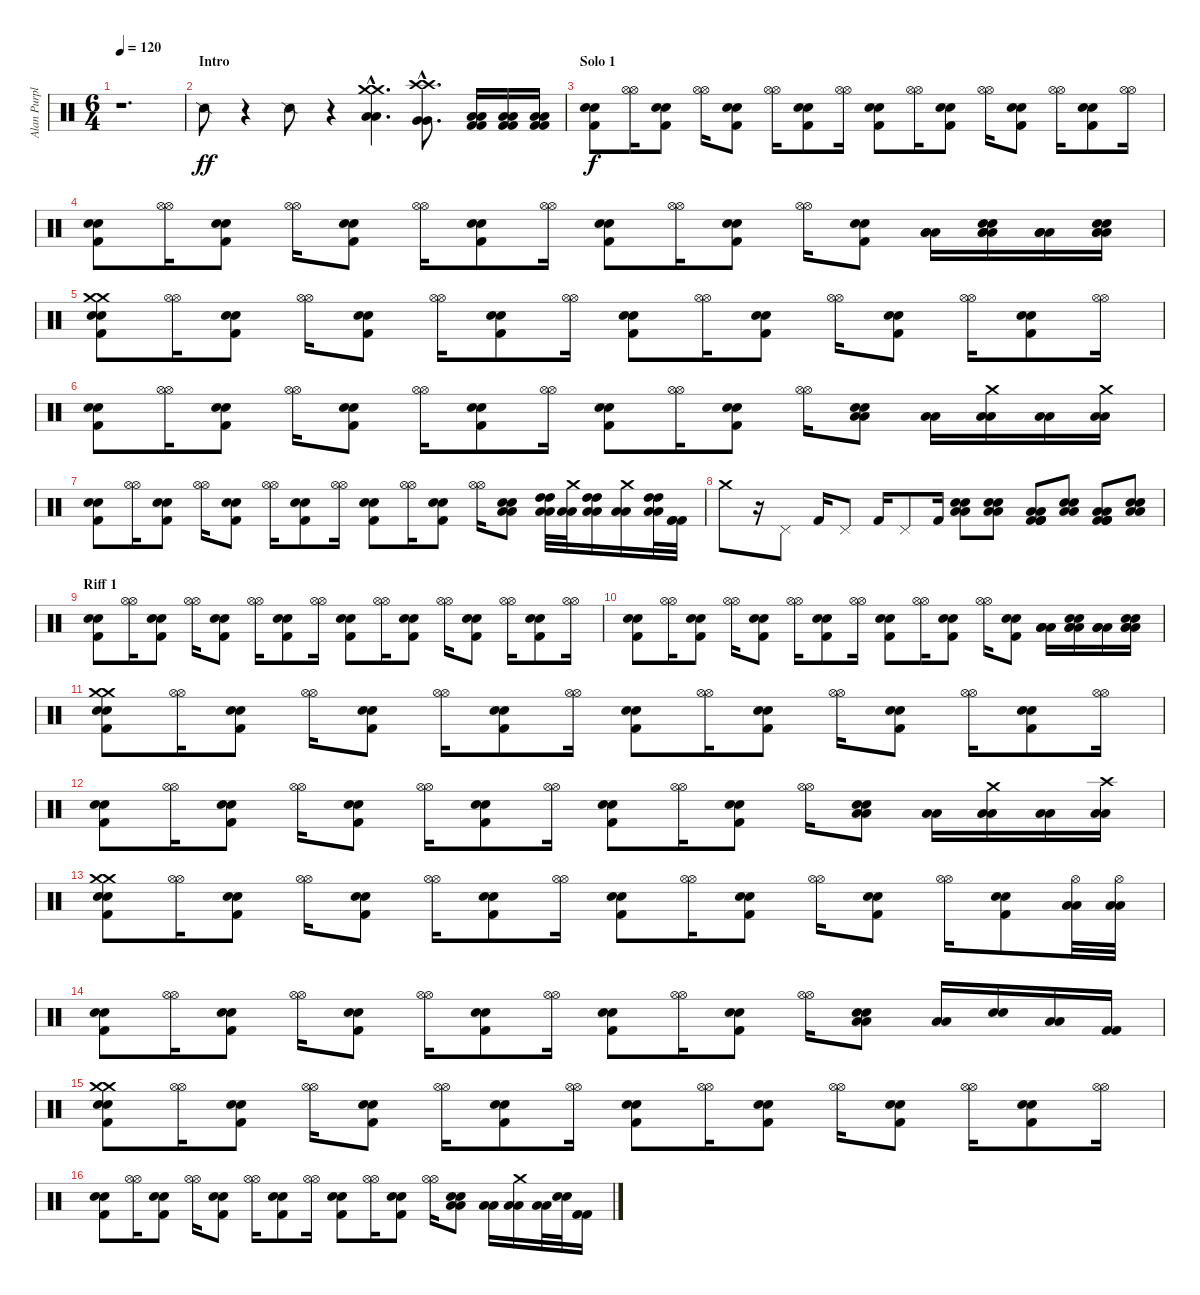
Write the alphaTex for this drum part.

\track ("Alan Purple" "Alan Purpl") {instrument percussion}
\staff {score}
\articulation defaults
\ts (6 4)
\tempo 120
\clef neutral
\ks c
r.1{d dy ff} |
\section ("" "Intro")
"Snare (side stick) 2".8 r.4 "Snare (side stick) 2".8 r.4 ("Crash medium (hit)"{hac} "Crash medium (hit)"{hac} "Low Tom (hit)"{hac} "Low Tom (hit)"{hac}).4{d} ("Crash high (hit)"{hac} "Crash high (hit)"{hac} "Very Low Tom (hit)"{hac} "Very Low Tom (hit)"{hac}).8{d} ("Kick (hit) 2" "Kick (hit) 2" "Low Tom (hit)" "Low Tom (hit)").16 ("Kick (hit) 2" "Kick (hit) 2" "Low Tom (hit)" "Low Tom (hit)").16 ("Kick (hit) 2" "Kick (hit) 2" "Low Tom (hit)" "Low Tom (hit)").16 |
\section ("" "Solo 1")
("Electric Snare (hit)" "Kick (hit) 2" "Electric Snare (hit)").8{dy f} ("Hi-Hat (open)" "Hi-Hat (open)").16 ("Electric Snare (hit)" "Kick (hit) 2" "Electric Snare (hit)").8 ("Hi-Hat (open)" "Hi-Hat (open)").16 ("Electric Snare (hit)" "Kick (hit) 2" "Electric Snare (hit)").8 ("Hi-Hat (open)" "Hi-Hat (open)").16 ("Electric Snare (hit)" "Kick (hit) 2" "Electric Snare (hit)").8 ("Hi-Hat (open)" "Hi-Hat (open)").16 ("Electric Snare (hit)" "Kick (hit) 2" "Electric Snare (hit)").8 ("Hi-Hat (open)" "Hi-Hat (open)").16 ("Electric Snare (hit)" "Kick (hit) 2" "Electric Snare (hit)").8 ("Hi-Hat (open)" "Hi-Hat (open)").16 ("Electric Snare (hit)" "Kick (hit) 2" "Electric Snare (hit)").8 ("Hi-Hat (open)" "Hi-Hat (open)").16 ("Electric Snare (hit)" "Kick (hit) 2" "Electric Snare (hit)").8 ("Hi-Hat (open)" "Hi-Hat (open)").16 |
("Electric Snare (hit)" "Kick (hit) 2" "Electric Snare (hit)").8 ("Hi-Hat (open)" "Hi-Hat (open)").16 ("Electric Snare (hit)" "Kick (hit) 2" "Electric Snare (hit)").8 ("Hi-Hat (open)" "Hi-Hat (open)").16 ("Electric Snare (hit)" "Kick (hit) 2" "Electric Snare (hit)").8 ("Hi-Hat (open)" "Hi-Hat (open)").16 ("Electric Snare (hit)" "Kick (hit) 2" "Electric Snare (hit)").8 ("Hi-Hat (open)" "Hi-Hat (open)").16 ("Electric Snare (hit)" "Kick (hit) 2" "Electric Snare (hit)").8 ("Hi-Hat (open)" "Hi-Hat (open)").16 ("Electric Snare (hit)" "Kick (hit) 2" "Electric Snare (hit)").8 ("Hi-Hat (open)" "Hi-Hat (open)").16 ("Electric Snare (hit)" "Kick (hit) 2" "Electric Snare (hit)").8 ("Low Tom (hit)" "Low Tom (hit)" "Low Tom (hit)").16 ("Low Tom (hit)" "Low Tom (hit)" "Low Tom (hit)" "Electric Snare (hit)" "Electric Snare (hit)").16 ("Low Tom (hit)" "Low Tom (hit)" "Low Tom (hit)").16 ("Low Tom (hit)" "Low Tom (hit)" "Low Tom (hit)" "Electric Snare (hit)" "Electric Snare (hit)").16 |
("Electric Snare (hit)" "Crash medium (hit)" "Crash medium (hit)" "Kick (hit) 2" "Electric Snare (hit)").8 ("Hi-Hat (open)" "Hi-Hat (open)").16 ("Electric Snare (hit)" "Kick (hit) 2" "Electric Snare (hit)").8 ("Hi-Hat (open)" "Hi-Hat (open)").16 ("Electric Snare (hit)" "Kick (hit) 2" "Electric Snare (hit)").8 ("Hi-Hat (open)" "Hi-Hat (open)").16 ("Electric Snare (hit)" "Kick (hit) 2" "Electric Snare (hit)").8 ("Hi-Hat (open)" "Hi-Hat (open)").16 ("Electric Snare (hit)" "Kick (hit) 2" "Electric Snare (hit)").8 ("Hi-Hat (open)" "Hi-Hat (open)").16 ("Electric Snare (hit)" "Kick (hit) 2" "Electric Snare (hit)").8 ("Hi-Hat (open)" "Hi-Hat (open)").16 ("Electric Snare (hit)" "Kick (hit) 2" "Electric Snare (hit)").8 ("Hi-Hat (open)" "Hi-Hat (open)").16 ("Electric Snare (hit)" "Kick (hit) 2" "Electric Snare (hit)").8 ("Hi-Hat (open)" "Hi-Hat (open)").16 |
("Electric Snare (hit)" "Kick (hit) 2" "Electric Snare (hit)").8 ("Hi-Hat (open)" "Hi-Hat (open)").16 ("Electric Snare (hit)" "Kick (hit) 2" "Electric Snare (hit)").8 ("Hi-Hat (open)" "Hi-Hat (open)").16 ("Electric Snare (hit)" "Kick (hit) 2" "Electric Snare (hit)").8 ("Hi-Hat (open)" "Hi-Hat (open)").16 ("Electric Snare (hit)" "Kick (hit) 2" "Electric Snare (hit)").8 ("Hi-Hat (open)" "Hi-Hat (open)").16 ("Electric Snare (hit)" "Kick (hit) 2" "Electric Snare (hit)").8 ("Hi-Hat (open)" "Hi-Hat (open)").16 ("Electric Snare (hit)" "Kick (hit) 2" "Electric Snare (hit)").8 ("Hi-Hat (open)" "Hi-Hat (open)").16 ("Electric Snare (hit)" "Low Tom (hit)" "Low Tom (hit)" "Electric Snare (hit)").8 ("Low Tom (hit)" "Low Tom (hit)").16 ("Crash medium (hit)" "Low Tom (hit)" "Low Tom (hit)").16 ("Low Tom (hit)" "Low Tom (hit)").16 ("Crash medium (hit)" "Low Tom (hit)" "Low Tom (hit)").16 |
("Electric Snare (hit)" "Kick (hit) 2" "Electric Snare (hit)").8 ("Hi-Hat (open)" "Hi-Hat (open)").16 ("Electric Snare (hit)" "Kick (hit) 2" "Electric Snare (hit)").8 ("Hi-Hat (open)" "Hi-Hat (open)").16 ("Electric Snare (hit)" "Kick (hit) 2" "Electric Snare (hit)").8 ("Hi-Hat (open)" "Hi-Hat (open)").16 ("Electric Snare (hit)" "Kick (hit) 2" "Electric Snare (hit)").8 ("Hi-Hat (open)" "Hi-Hat (open)").16 ("Electric Snare (hit)" "Kick (hit) 2" "Electric Snare (hit)").8 ("Hi-Hat (open)" "Hi-Hat (open)").16 ("Electric Snare (hit)" "Kick (hit) 2" "Electric Snare (hit)").8 ("Hi-Hat (open)" "Hi-Hat (open)").16 ("Electric Snare (hit)" "Low Tom (hit)" "Low Tom (hit)" "Electric Snare (hit)").8 ("High Tom (hit)" "Low Tom (hit)" "Low Tom (hit)" "High Tom (hit)").32 ("Crash medium (hit)" "Low Tom (hit)" "Low Tom (hit)").32 ("High Tom (hit)" "Low Tom (hit)" "Low Tom (hit)" "High Tom (hit)").16 ("Crash medium (hit)" "Low Tom (hit)" "Low Tom (hit)").16 ("High Tom (hit)" "Low Tom (hit)" "Low Tom (hit)" "High Tom (hit)").32 ("Kick (hit) 2" "Kick (hit) 2" "Kick (hit) 2").32 |
"Crash medium (hit)".8 r.16 "Pedal Hi-Hat (hit)".8 "Kick (hit) 2".16 "Pedal Hi-Hat (hit)".8 "Kick (hit) 2".16 "Pedal Hi-Hat (hit)".8 "Kick (hit) 2".16 ("Electric Snare (hit)" "Low Tom (hit)" "Low Tom (hit)" "Electric Snare (hit)").8 ("Electric Snare (hit)" "Low Tom (hit)" "Low Tom (hit)" "Electric Snare (hit)").8 ("Kick (hit) 2" "Kick (hit) 2" "Low Tom (hit)" "Low Tom (hit)" "Kick (hit) 2" "Kick (hit) 2").8 ("Electric Snare (hit)" "Low Tom (hit)" "Low Tom (hit)" "Electric Snare (hit)").8 ("Kick (hit) 2" "Kick (hit) 2" "Low Tom (hit)" "Low Tom (hit)" "Kick (hit) 2" "Kick (hit) 2").8 ("Electric Snare (hit)" "Low Tom (hit)" "Low Tom (hit)" "Electric Snare (hit)").8 |
\section ("" "Riff 1")
("Electric Snare (hit)" "Kick (hit) 2" "Electric Snare (hit)").8 ("Hi-Hat (open)" "Hi-Hat (open)").16 ("Electric Snare (hit)" "Kick (hit) 2" "Electric Snare (hit)").8 ("Hi-Hat (open)" "Hi-Hat (open)").16 ("Electric Snare (hit)" "Kick (hit) 2" "Electric Snare (hit)").8 ("Hi-Hat (open)" "Hi-Hat (open)").16 ("Electric Snare (hit)" "Kick (hit) 2" "Electric Snare (hit)").8 ("Hi-Hat (open)" "Hi-Hat (open)").16 ("Electric Snare (hit)" "Kick (hit) 2" "Electric Snare (hit)").8 ("Hi-Hat (open)" "Hi-Hat (open)").16 ("Electric Snare (hit)" "Kick (hit) 2" "Electric Snare (hit)").8 ("Hi-Hat (open)" "Hi-Hat (open)").16 ("Electric Snare (hit)" "Kick (hit) 2" "Electric Snare (hit)").8 ("Hi-Hat (open)" "Hi-Hat (open)").16 ("Electric Snare (hit)" "Kick (hit) 2" "Electric Snare (hit)").8 ("Hi-Hat (open)" "Hi-Hat (open)").16 |
("Electric Snare (hit)" "Kick (hit) 2" "Electric Snare (hit)").8 ("Hi-Hat (open)" "Hi-Hat (open)").16 ("Electric Snare (hit)" "Kick (hit) 2" "Electric Snare (hit)").8 ("Hi-Hat (open)" "Hi-Hat (open)").16 ("Electric Snare (hit)" "Kick (hit) 2" "Electric Snare (hit)").8 ("Hi-Hat (open)" "Hi-Hat (open)").16 ("Electric Snare (hit)" "Kick (hit) 2" "Electric Snare (hit)").8 ("Hi-Hat (open)" "Hi-Hat (open)").16 ("Electric Snare (hit)" "Kick (hit) 2" "Electric Snare (hit)").8 ("Hi-Hat (open)" "Hi-Hat (open)").16 ("Electric Snare (hit)" "Kick (hit) 2" "Electric Snare (hit)").8 ("Hi-Hat (open)" "Hi-Hat (open)").16 ("Electric Snare (hit)" "Kick (hit) 2" "Electric Snare (hit)").8 ("Low Tom (hit)" "Low Tom (hit)" "Low Tom (hit)").16 ("Low Tom (hit)" "Low Tom (hit)" "Low Tom (hit)" "Electric Snare (hit)" "Electric Snare (hit)").16 ("Low Tom (hit)" "Low Tom (hit)" "Low Tom (hit)").16 ("Low Tom (hit)" "Low Tom (hit)" "Low Tom (hit)" "Electric Snare (hit)" "Electric Snare (hit)").16 |
("Electric Snare (hit)" "Crash medium (hit)" "Crash medium (hit)" "Kick (hit) 2" "Electric Snare (hit)").8 ("Hi-Hat (open)" "Hi-Hat (open)").16 ("Electric Snare (hit)" "Kick (hit) 2" "Electric Snare (hit)").8 ("Hi-Hat (open)" "Hi-Hat (open)").16 ("Electric Snare (hit)" "Kick (hit) 2" "Electric Snare (hit)").8 ("Hi-Hat (open)" "Hi-Hat (open)").16 ("Electric Snare (hit)" "Kick (hit) 2" "Electric Snare (hit)").8 ("Hi-Hat (open)" "Hi-Hat (open)").16 ("Electric Snare (hit)" "Kick (hit) 2" "Electric Snare (hit)").8 ("Hi-Hat (open)" "Hi-Hat (open)").16 ("Electric Snare (hit)" "Kick (hit) 2" "Electric Snare (hit)").8 ("Hi-Hat (open)" "Hi-Hat (open)").16 ("Electric Snare (hit)" "Kick (hit) 2" "Electric Snare (hit)").8 ("Hi-Hat (open)" "Hi-Hat (open)").16 ("Electric Snare (hit)" "Kick (hit) 2" "Electric Snare (hit)").8 ("Hi-Hat (open)" "Hi-Hat (open)").16 |
("Electric Snare (hit)" "Kick (hit) 2" "Electric Snare (hit)").8 ("Hi-Hat (open)" "Hi-Hat (open)").16 ("Electric Snare (hit)" "Kick (hit) 2" "Electric Snare (hit)").8 ("Hi-Hat (open)" "Hi-Hat (open)").16 ("Electric Snare (hit)" "Kick (hit) 2" "Electric Snare (hit)").8 ("Hi-Hat (open)" "Hi-Hat (open)").16 ("Electric Snare (hit)" "Kick (hit) 2" "Electric Snare (hit)").8 ("Hi-Hat (open)" "Hi-Hat (open)").16 ("Electric Snare (hit)" "Kick (hit) 2" "Electric Snare (hit)").8 ("Hi-Hat (open)" "Hi-Hat (open)").16 ("Electric Snare (hit)" "Kick (hit) 2" "Electric Snare (hit)").8 ("Hi-Hat (open)" "Hi-Hat (open)").16 ("Electric Snare (hit)" "Low Tom (hit)" "Low Tom (hit)" "Electric Snare (hit)").8 ("Low Tom (hit)" "Low Tom (hit)").16 ("Crash medium (hit)" "Low Tom (hit)" "Low Tom (hit)").16 ("Low Tom (hit)" "Low Tom (hit)").16 ("Crash high (hit)" "Low Tom (hit)" "Low Tom (hit)").16 |
("Electric Snare (hit)" "Crash medium (hit)" "Crash medium (hit)" "Kick (hit) 2" "Electric Snare (hit)").8 ("Hi-Hat (open)" "Hi-Hat (open)").16 ("Electric Snare (hit)" "Kick (hit) 2" "Electric Snare (hit)").8 ("Hi-Hat (open)" "Hi-Hat (open)").16 ("Electric Snare (hit)" "Kick (hit) 2" "Electric Snare (hit)").8 ("Hi-Hat (open)" "Hi-Hat (open)").16 ("Electric Snare (hit)" "Kick (hit) 2" "Electric Snare (hit)").8 ("Hi-Hat (open)" "Hi-Hat (open)").16 ("Electric Snare (hit)" "Kick (hit) 2" "Electric Snare (hit)").8 ("Hi-Hat (open)" "Hi-Hat (open)").16 ("Electric Snare (hit)" "Kick (hit) 2" "Electric Snare (hit)").8 ("Hi-Hat (open)" "Hi-Hat (open)").16 ("Electric Snare (hit)" "Kick (hit) 2" "Electric Snare (hit)").8 ("Hi-Hat (open)" "Hi-Hat (open)").16 ("Electric Snare (hit)" "Kick (hit) 2" "Electric Snare (hit)").8 ("Hi-Hat (open)" "Low Tom (hit)" "Low Tom (hit)").32 ("Hi-Hat (open)" "Low Tom (hit)" "Low Tom (hit)").32 |
("Electric Snare (hit)" "Kick (hit) 2" "Electric Snare (hit)").8 ("Hi-Hat (open)" "Hi-Hat (open)").16 ("Electric Snare (hit)" "Kick (hit) 2" "Electric Snare (hit)").8 ("Hi-Hat (open)" "Hi-Hat (open)").16 ("Electric Snare (hit)" "Kick (hit) 2" "Electric Snare (hit)").8 ("Hi-Hat (open)" "Hi-Hat (open)").16 ("Electric Snare (hit)" "Kick (hit) 2" "Electric Snare (hit)").8 ("Hi-Hat (open)" "Hi-Hat (open)").16 ("Electric Snare (hit)" "Kick (hit) 2" "Electric Snare (hit)").8 ("Hi-Hat (open)" "Hi-Hat (open)").16 ("Electric Snare (hit)" "Kick (hit) 2" "Electric Snare (hit)").8 ("Hi-Hat (open)" "Hi-Hat (open)").16 ("Electric Snare (hit)" "Low Tom (hit)" "Low Tom (hit)" "Electric Snare (hit)").8 ("Low Tom (hit)" "Low Tom (hit)").16 ("Electric Snare (hit)" "Electric Snare (hit)").16 ("Low Tom (hit)" "Low Tom (hit)").16 ("Kick (hit) 2" "Kick (hit) 2").16 |
("Electric Snare (hit)" "Crash medium (hit)" "Crash medium (hit)" "Kick (hit) 2" "Electric Snare (hit)").8 ("Hi-Hat (open)" "Hi-Hat (open)").16 ("Electric Snare (hit)" "Kick (hit) 2" "Electric Snare (hit)").8 ("Hi-Hat (open)" "Hi-Hat (open)").16 ("Electric Snare (hit)" "Kick (hit) 2" "Electric Snare (hit)").8 ("Hi-Hat (open)" "Hi-Hat (open)").16 ("Electric Snare (hit)" "Kick (hit) 2" "Electric Snare (hit)").8 ("Hi-Hat (open)" "Hi-Hat (open)").16 ("Electric Snare (hit)" "Kick (hit) 2" "Electric Snare (hit)").8 ("Hi-Hat (open)" "Hi-Hat (open)").16 ("Electric Snare (hit)" "Kick (hit) 2" "Electric Snare (hit)").8 ("Hi-Hat (open)" "Hi-Hat (open)").16 ("Electric Snare (hit)" "Kick (hit) 2" "Electric Snare (hit)").8 ("Hi-Hat (open)" "Hi-Hat (open)").16 ("Electric Snare (hit)" "Kick (hit) 2" "Electric Snare (hit)").8 ("Hi-Hat (open)" "Hi-Hat (open)").16 |
("Electric Snare (hit)" "Kick (hit) 2" "Electric Snare (hit)").8 ("Hi-Hat (open)" "Hi-Hat (open)").16 ("Electric Snare (hit)" "Kick (hit) 2" "Electric Snare (hit)").8 ("Hi-Hat (open)" "Hi-Hat (open)").16 ("Electric Snare (hit)" "Kick (hit) 2" "Electric Snare (hit)").8 ("Hi-Hat (open)" "Hi-Hat (open)").16 ("Electric Snare (hit)" "Kick (hit) 2" "Electric Snare (hit)").8 ("Hi-Hat (open)" "Hi-Hat (open)").16 ("Electric Snare (hit)" "Kick (hit) 2" "Electric Snare (hit)").8 ("Hi-Hat (open)" "Hi-Hat (open)").16 ("Electric Snare (hit)" "Kick (hit) 2" "Electric Snare (hit)").8 ("Hi-Hat (open)" "Hi-Hat (open)").16 ("Electric Snare (hit)" "Low Tom (hit)" "Low Tom (hit)" "Electric Snare (hit)").8 ("Low Tom (hit)" "Low Tom (hit)").16 ("Crash medium (hit)" "Low Tom (hit)" "Low Tom (hit)").16 ("Low Tom (hit)" "Low Tom (hit)").32 ("Electric Snare (hit)" "Electric Snare (hit)").32 ("Kick (hit) 2" "Kick (hit) 2").16
